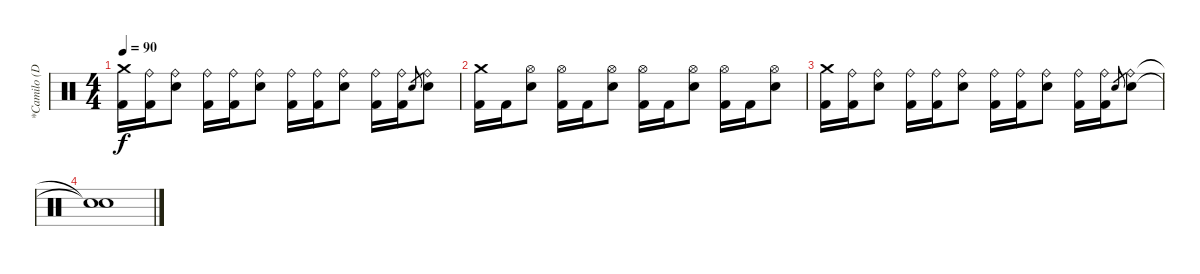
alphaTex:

\track ("*Camilo (Drums)" "*Camilo (D") {instrument percussion}
\staff {score}
\articulation defaults
\ts (4 4)
\tempo 90
\clef neutral
\ks c
("Crash medium (hit)" "Kick (hit) 2").16{dy f} ("Ride (bell)" "Kick (hit) 2").16 ("Ride (bell)" "Electric Snare (hit)").8 ("Ride (bell)" "Kick (hit) 2").16 ("Ride (bell)" "Kick (hit) 2").16 ("Ride (bell)" "Electric Snare (hit)").8 ("Ride (bell)" "Kick (hit) 2").16 ("Ride (bell)" "Kick (hit) 2").16 ("Ride (bell)" "Electric Snare (hit)").8 ("Ride (bell)" "Kick (hit) 2").16 ("Ride (bell)" "Kick (hit) 2").16 "Electric Snare (hit)".8{gr} ("Ride (bell)" "Electric Snare (hit)").8 |
("Crash medium (hit)" "Kick (hit) 2").16 "Kick (hit) 2".16 ("Hi-Hat (open)" "Electric Snare (hit)").8 ("Hi-Hat (open)" "Kick (hit) 2").16 "Kick (hit) 2".16 ("Hi-Hat (open)" "Electric Snare (hit)").8 ("Hi-Hat (open)" "Kick (hit) 2").16 "Kick (hit) 2".16 ("Hi-Hat (open)" "Electric Snare (hit)").8 ("Hi-Hat (open)" "Kick (hit) 2").16 "Kick (hit) 2".16 ("Hi-Hat (open)" "Electric Snare (hit)").8 |
("Crash medium (hit)" "Kick (hit) 2").16 ("Ride (bell)" "Kick (hit) 2").16 ("Ride (bell)" "Electric Snare (hit)").8 ("Ride (bell)" "Kick (hit) 2").16 ("Ride (bell)" "Kick (hit) 2").16 ("Ride (bell)" "Electric Snare (hit)").8 ("Ride (bell)" "Kick (hit) 2").16 ("Ride (bell)" "Kick (hit) 2").16 ("Ride (bell)" "Electric Snare (hit)").8 ("Ride (bell)" "Kick (hit) 2").16 ("Ride (bell)" "Kick (hit) 2").16 "Electric Snare (hit)".8{gr} ("Ride (bell)" "Electric Snare (hit)").8 |
("Snare (hit)"{t} "Snare (hit)"{t}).1
